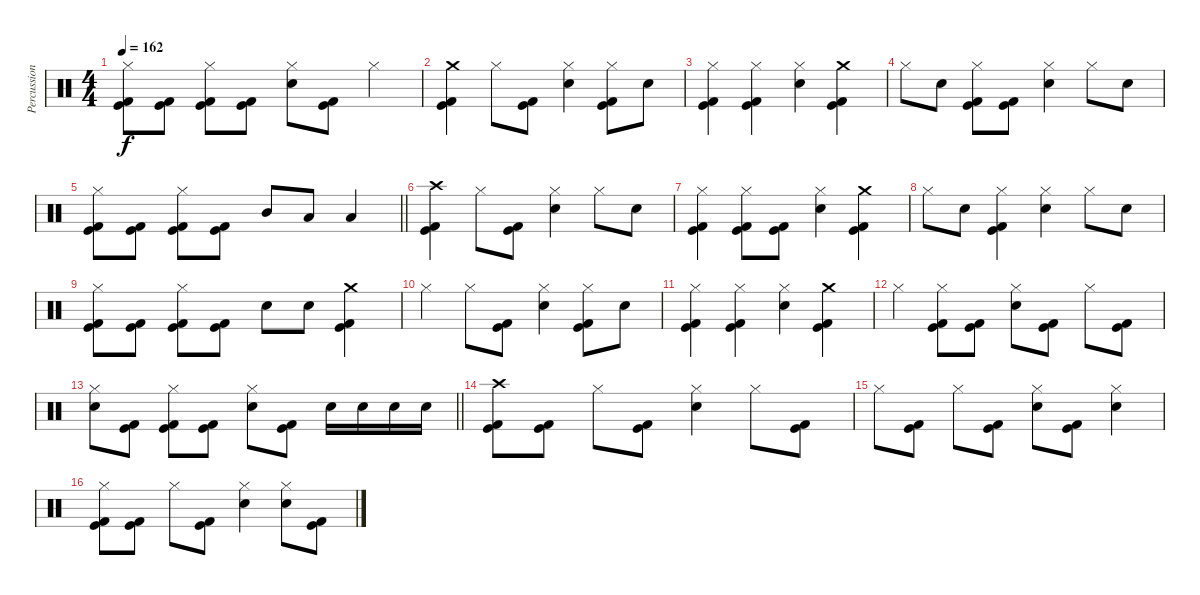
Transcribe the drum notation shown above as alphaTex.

\track ("Percussion" "Percussion") {instrument percussion}
\staff {score}
\articulation defaults
\ts (4 4)
\tempo 162
\clef neutral
\ks c
("Hi-Hat (closed)" "Kick (hit)" "Kick (hit) 2").8{dy f} ("Kick (hit)" "Kick (hit) 2").8 ("Hi-Hat (closed)" "Kick (hit)" "Kick (hit) 2").8 ("Kick (hit)" "Kick (hit) 2").8 ("Hi-Hat (closed)" "Electric Snare (hit)").8 ("Kick (hit)" "Kick (hit) 2").8 "Hi-Hat (closed)".4 |
("Crash medium (hit)" "Kick (hit)" "Kick (hit) 2").4 "Hi-Hat (closed)".8 ("Kick (hit)" "Kick (hit) 2").8 ("Hi-Hat (closed)" "Electric Snare (hit)").4 ("Hi-Hat (closed)" "Kick (hit)" "Kick (hit) 2").8 "Electric Snare (hit)".8 |
("Hi-Hat (closed)" "Kick (hit)" "Kick (hit) 2").4 ("Hi-Hat (closed)" "Kick (hit)" "Kick (hit) 2").4 ("Hi-Hat (closed)" "Electric Snare (hit)").4 ("Crash medium (hit)" "Kick (hit)" "Kick (hit) 2").4 |
"Hi-Hat (closed)".8 "Electric Snare (hit)".8 ("Hi-Hat (closed)" "Kick (hit)" "Kick (hit) 2").8 ("Kick (hit)" "Kick (hit) 2").8 ("Hi-Hat (closed)" "Electric Snare (hit)").4 "Hi-Hat (closed)".8 "Electric Snare (hit)".8 |
\barLineRight lightlight
("Hi-Hat (closed)" "Kick (hit)" "Kick (hit) 2").8 ("Kick (hit)" "Kick (hit) 2").8 ("Hi-Hat (closed)" "Kick (hit)" "Kick (hit) 2").8 ("Kick (hit)" "Kick (hit) 2").8 "Mid Tom (hit)".8 "Low Tom (hit)".8 "Low Tom (hit)".4 |
\section ("" "")
("Crash high (hit)" "Kick (hit)" "Kick (hit) 2").4 "Hi-Hat (closed)".8 ("Kick (hit)" "Kick (hit) 2").8 ("Hi-Hat (closed)" "Electric Snare (hit)").4 "Hi-Hat (closed)".8 "Electric Snare (hit)".8 |
("Hi-Hat (closed)" "Kick (hit)" "Kick (hit) 2").4 ("Hi-Hat (closed)" "Kick (hit)" "Kick (hit) 2").8 ("Kick (hit)" "Kick (hit) 2").8 ("Hi-Hat (closed)" "Electric Snare (hit)").4 ("Crash medium (hit)" "Kick (hit)" "Kick (hit) 2").4 |
"Hi-Hat (closed)".8 "Electric Snare (hit)".8 ("Hi-Hat (closed)" "Kick (hit)" "Kick (hit) 2").4 ("Hi-Hat (closed)" "Electric Snare (hit)").4 "Hi-Hat (closed)".8 "Electric Snare (hit)".8 |
("Hi-Hat (closed)" "Kick (hit)" "Kick (hit) 2").8 ("Kick (hit)" "Kick (hit) 2").8 ("Hi-Hat (closed)" "Kick (hit)" "Kick (hit) 2").8 ("Kick (hit)" "Kick (hit) 2").8 "Electric Snare (hit)".8 "Electric Snare (hit)".8 ("Crash medium (hit)" "Kick (hit)" "Kick (hit) 2").4 |
"Hi-Hat (closed)".4 "Hi-Hat (closed)".8 ("Kick (hit)" "Kick (hit) 2").8 ("Hi-Hat (closed)" "Electric Snare (hit)").4 ("Hi-Hat (closed)" "Kick (hit)" "Kick (hit) 2").8 "Electric Snare (hit)".8 |
("Hi-Hat (closed)" "Kick (hit)" "Kick (hit) 2").4 ("Hi-Hat (closed)" "Kick (hit)" "Kick (hit) 2").4 ("Hi-Hat (closed)" "Electric Snare (hit)").4 ("Crash medium (hit)" "Kick (hit)" "Kick (hit) 2").4 |
"Hi-Hat (closed)".4 ("Hi-Hat (closed)" "Kick (hit)" "Kick (hit) 2").8 ("Kick (hit)" "Kick (hit) 2").8 ("Hi-Hat (closed)" "Electric Snare (hit)").8 ("Kick (hit)" "Kick (hit) 2").8 "Hi-Hat (closed)".8 ("Kick (hit)" "Kick (hit) 2").8 |
\barLineRight lightlight
("Hi-Hat (closed)" "Electric Snare (hit)").8 ("Kick (hit)" "Kick (hit) 2").8 ("Hi-Hat (closed)" "Kick (hit)" "Kick (hit) 2").8 ("Kick (hit)" "Kick (hit) 2").8 ("Hi-Hat (closed)" "Electric Snare (hit)").8 ("Kick (hit)" "Kick (hit) 2").8 "Electric Snare (hit)".16 "Electric Snare (hit)".16 "Electric Snare (hit)".16 "Electric Snare (hit)".16 |
\section ("" "")
("Crash high (hit)" "Kick (hit)" "Kick (hit) 2").8 ("Kick (hit)" "Kick (hit) 2").8 "Hi-Hat (closed)".8 ("Kick (hit)" "Kick (hit) 2").8 ("Hi-Hat (closed)" "Electric Snare (hit)").4 "Hi-Hat (closed)".8 ("Kick (hit)" "Kick (hit) 2").8 |
"Hi-Hat (closed)".8 ("Kick (hit)" "Kick (hit) 2").8 "Hi-Hat (closed)".8 ("Kick (hit)" "Kick (hit) 2").8 ("Hi-Hat (closed)" "Electric Snare (hit)").8 ("Kick (hit)" "Kick (hit) 2").8 ("Hi-Hat (closed)" "Electric Snare (hit)").4 |
("Hi-Hat (closed)" "Kick (hit)" "Kick (hit) 2").8 ("Kick (hit)" "Kick (hit) 2").8 "Hi-Hat (closed)".8 ("Kick (hit)" "Kick (hit) 2").8 ("Hi-Hat (closed)" "Electric Snare (hit)").4 ("Hi-Hat (closed)" "Electric Snare (hit)").8 ("Kick (hit)" "Kick (hit) 2").8
